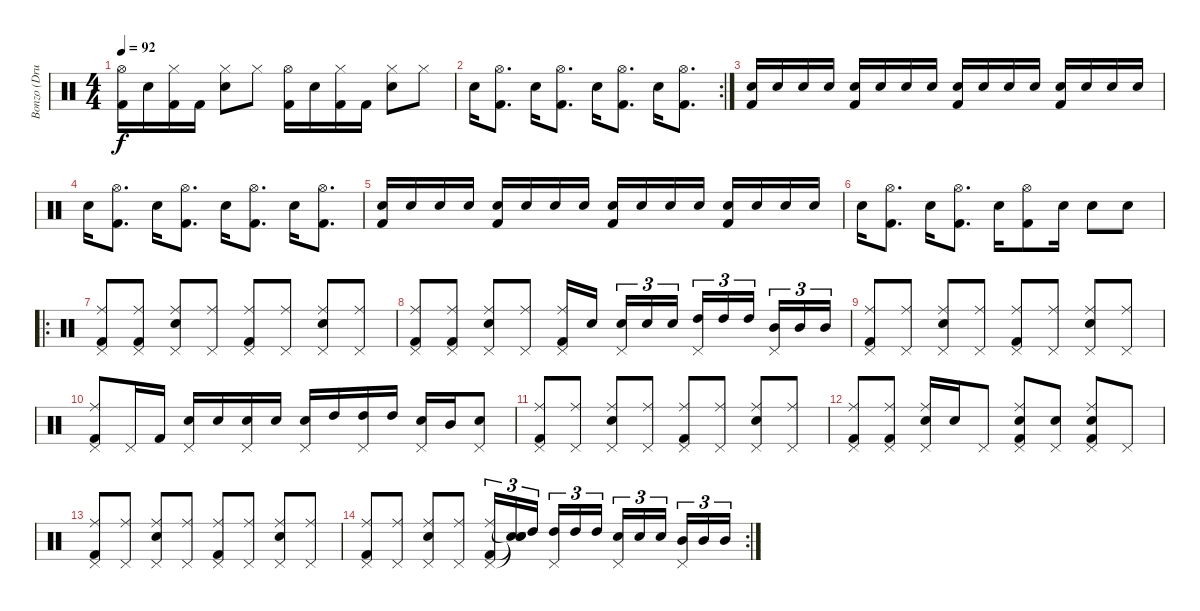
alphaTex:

\track ("Bonzo (Drums)" "Bonzo (Dru") {instrument percussion}
\staff {score}
\articulation defaults
\ts (4 4)
\tempo 92
\clef neutral
\ks c
("Hi-Hat (open)" "Kick (hit) 2").16{dy f} "Snare (hit) 2".16 ("Hi-Hat (closed)" "Kick (hit) 2").16 "Kick (hit) 2".16 ("Hi-Hat (closed)" "Snare (hit) 2").8 "Hi-Hat (closed)".8 ("Hi-Hat (open)" "Kick (hit) 2").16 "Snare (hit) 2".16 ("Hi-Hat (closed)" "Kick (hit) 2").16 "Kick (hit) 2".16 ("Hi-Hat (closed)" "Snare (hit) 2").8 "Hi-Hat (closed)".8 |
\rc 2 "Snare (hit) 2".16
("Hi-Hat (open)" "Kick (hit) 2").8{d} "Snare (hit) 2".16 ("Hi-Hat (open)" "Kick (hit) 2").8{d} "Snare (hit) 2".16 ("Hi-Hat (open)" "Kick (hit) 2").8{d} "Snare (hit) 2".16 ("Hi-Hat (open)" "Kick (hit) 2").8{d} |
("Snare (hit) 2" "Kick (hit) 2").16 "Snare (hit) 2".16 "Snare (hit) 2".16 "Snare (hit) 2".16 ("Snare (hit) 2" "Kick (hit) 2").16 "Snare (hit) 2".16 "Snare (hit) 2".16 "Snare (hit) 2".16 ("Snare (hit) 2" "Kick (hit) 2").16 "Snare (hit) 2".16 "Snare (hit) 2".16 "Snare (hit) 2".16 ("Snare (hit) 2" "Kick (hit) 2").16 "Snare (hit) 2".16 "Snare (hit) 2".16 "Snare (hit) 2".16 |
"Snare (hit) 2".16 ("Hi-Hat (open)" "Kick (hit) 2").8{d} "Snare (hit) 2".16 ("Hi-Hat (open)" "Kick (hit) 2").8{d} "Snare (hit) 2".16 ("Hi-Hat (open)" "Kick (hit) 2").8{d} "Snare (hit) 2".16 ("Hi-Hat (open)" "Kick (hit) 2").8{d} |
("Snare (hit) 2" "Kick (hit) 2").16 "Snare (hit) 2".16 "Snare (hit) 2".16 "Snare (hit) 2".16 ("Snare (hit) 2" "Kick (hit) 2").16 "Snare (hit) 2".16 "Snare (hit) 2".16 "Snare (hit) 2".16 ("Snare (hit) 2" "Kick (hit) 2").16 "Snare (hit) 2".16 "Snare (hit) 2".16 "Snare (hit) 2".16 ("Snare (hit) 2" "Kick (hit) 2").16 "Snare (hit) 2".16 "Snare (hit) 2".16 "Snare (hit) 2".16 |
"Snare (hit) 2".16 ("Hi-Hat (open)" "Kick (hit) 2").8{d} "Snare (hit) 2".16 ("Hi-Hat (open)" "Kick (hit) 2").8{d} "Snare (hit) 2".16 ("Hi-Hat (open)" "Kick (hit) 2").8 "Snare (hit) 2".16 "Snare (hit) 2".8 "Snare (hit) 2".8 |
\ro
("Ride (middle)" "Pedal Hi-Hat (hit)" "Kick (hit) 2").8 ("Ride (middle)" "Pedal Hi-Hat (hit)" "Kick (hit) 2").8 ("Ride (middle)" "Snare (hit) 2" "Pedal Hi-Hat (hit)").8 ("Ride (middle)" "Pedal Hi-Hat (hit)").8 ("Ride (middle)" "Pedal Hi-Hat (hit)" "Kick (hit) 2").8 ("Ride (middle)" "Pedal Hi-Hat (hit)").8 ("Ride (middle)" "Snare (hit) 2" "Pedal Hi-Hat (hit)").8 ("Ride (middle)" "Pedal Hi-Hat (hit)").8 |
("Ride (middle)" "Pedal Hi-Hat (hit)" "Kick (hit) 2").8 ("Ride (middle)" "Pedal Hi-Hat (hit)" "Kick (hit) 2").8 ("Ride (middle)" "Snare (hit) 2" "Pedal Hi-Hat (hit)").8 ("Ride (middle)" "Pedal Hi-Hat (hit)").8 ("Ride (middle)" "Pedal Hi-Hat (hit)" "Kick (hit) 2").16 "Snare (hit) 2".16 ("Snare (hit) 2" "Pedal Hi-Hat (hit)").16{tu (3 2)} "Snare (hit) 2".16{tu (3 2)} "Snare (hit) 2".16{tu (3 2)} ("High Tom (hit)" "Pedal Hi-Hat (hit)").16{tu (3 2)} "High Tom (hit)".16{tu (3 2)} "High Tom (hit)".16{tu (3 2)} ("Mid Tom (hit)" "Pedal Hi-Hat (hit)").16{tu (3 2)} "Mid Tom (hit)".16{tu (3 2)} "Mid Tom (hit)".16{tu (3 2)} |
("Ride (middle)" "Pedal Hi-Hat (hit)" "Kick (hit) 2").8 ("Ride (middle)" "Pedal Hi-Hat (hit)").8 ("Ride (middle)" "Snare (hit) 2" "Pedal Hi-Hat (hit)").8 ("Ride (middle)" "Pedal Hi-Hat (hit)").8 ("Ride (middle)" "Pedal Hi-Hat (hit)" "Kick (hit) 2").8 ("Ride (middle)" "Pedal Hi-Hat (hit)").8 ("Ride (middle)" "Snare (hit) 2" "Pedal Hi-Hat (hit)").8 ("Ride (middle)" "Pedal Hi-Hat (hit)").8 |
("Ride (middle)" "Pedal Hi-Hat (hit)" "Kick (hit) 2").8 "Pedal Hi-Hat (hit)".16 "Kick (hit) 2".16 ("Snare (hit) 2" "Pedal Hi-Hat (hit)").16 "Snare (hit) 2".16 ("Snare (hit) 2" "Pedal Hi-Hat (hit)").16 "Snare (hit) 2".16 ("Snare (hit) 2" "Pedal Hi-Hat (hit)").16 "High Tom (hit)".16 ("High Tom (hit)" "Pedal Hi-Hat (hit)").16 "High Tom (hit)".16 ("Snare (hit) 2" "Pedal Hi-Hat (hit)").16 "Mid Tom (hit)".16 ("Snare (hit) 2" "Pedal Hi-Hat (hit)").8 |
("Ride (middle)" "Pedal Hi-Hat (hit)" "Kick (hit) 2").8 ("Ride (middle)" "Pedal Hi-Hat (hit)").8 ("Ride (middle)" "Snare (hit) 2" "Pedal Hi-Hat (hit)").8 ("Ride (middle)" "Pedal Hi-Hat (hit)").8 ("Ride (middle)" "Pedal Hi-Hat (hit)" "Kick (hit) 2").8 ("Ride (middle)" "Pedal Hi-Hat (hit)").8 ("Ride (middle)" "Snare (hit) 2" "Pedal Hi-Hat (hit)").8 ("Ride (middle)" "Pedal Hi-Hat (hit)").8 |
("Ride (middle)" "Pedal Hi-Hat (hit)" "Kick (hit) 2").8 ("Ride (middle)" "Pedal Hi-Hat (hit)" "Kick (hit) 2").8 ("Ride (middle)" "Snare (hit) 2" "Pedal Hi-Hat (hit)").16 "Snare (hit) 2".16 "Pedal Hi-Hat (hit)".8 ("Ride (middle)" "Snare (hit) 2" "Pedal Hi-Hat (hit)" "Kick (hit) 2").8 ("Snare (hit) 2" "Pedal Hi-Hat (hit)").8 ("Ride (middle)" "Snare (hit) 2" "Pedal Hi-Hat (hit)" "Kick (hit) 2").8 "Pedal Hi-Hat (hit)".8 |
("Ride (middle)" "Pedal Hi-Hat (hit)" "Kick (hit) 2").8 ("Ride (middle)" "Pedal Hi-Hat (hit)").8 ("Ride (middle)" "Snare (hit) 2" "Pedal Hi-Hat (hit)").8 ("Ride (middle)" "Pedal Hi-Hat (hit)").8 ("Ride (middle)" "Pedal Hi-Hat (hit)" "Kick (hit) 2").8 ("Ride (middle)" "Pedal Hi-Hat (hit)").8 ("Ride (middle)" "Snare (hit) 2" "Pedal Hi-Hat (hit)").8 ("Ride (middle)" "Pedal Hi-Hat (hit)").8 |
\rc 2
("Ride (middle)" "Pedal Hi-Hat (hit)" "Kick (hit) 2").8 ("Ride (middle)" "Pedal Hi-Hat (hit)").8 ("Ride (middle)" "Snare (hit) 2" "Pedal Hi-Hat (hit)").8 ("Ride (middle)" "Pedal Hi-Hat (hit)").8 ("Ride (middle)" "Pedal Hi-Hat (hit)" "Kick (hit) 2").16{tu (3 2)} ("Snare (hit)"{t} "Snare (hit)"{t} "Snare (hit)"{t}).16{tu (3 2)} "High Tom (hit)".16{tu (3 2)} ("High Tom (hit)" "Pedal Hi-Hat (hit)").16{tu (3 2)} "High Tom (hit)".16{tu (3 2)} "High Tom (hit)".16{tu (3 2)} ("Snare (hit) 2" "Pedal Hi-Hat (hit)").16{tu (3 2)} "Snare (hit) 2".16{tu (3 2)} "Snare (hit) 2".16{tu (3 2)} ("Mid Tom (hit)" "Pedal Hi-Hat (hit)").16{tu (3 2)} "Mid Tom (hit)".16{tu (3 2)} "Mid Tom (hit)".16{tu (3 2)}
